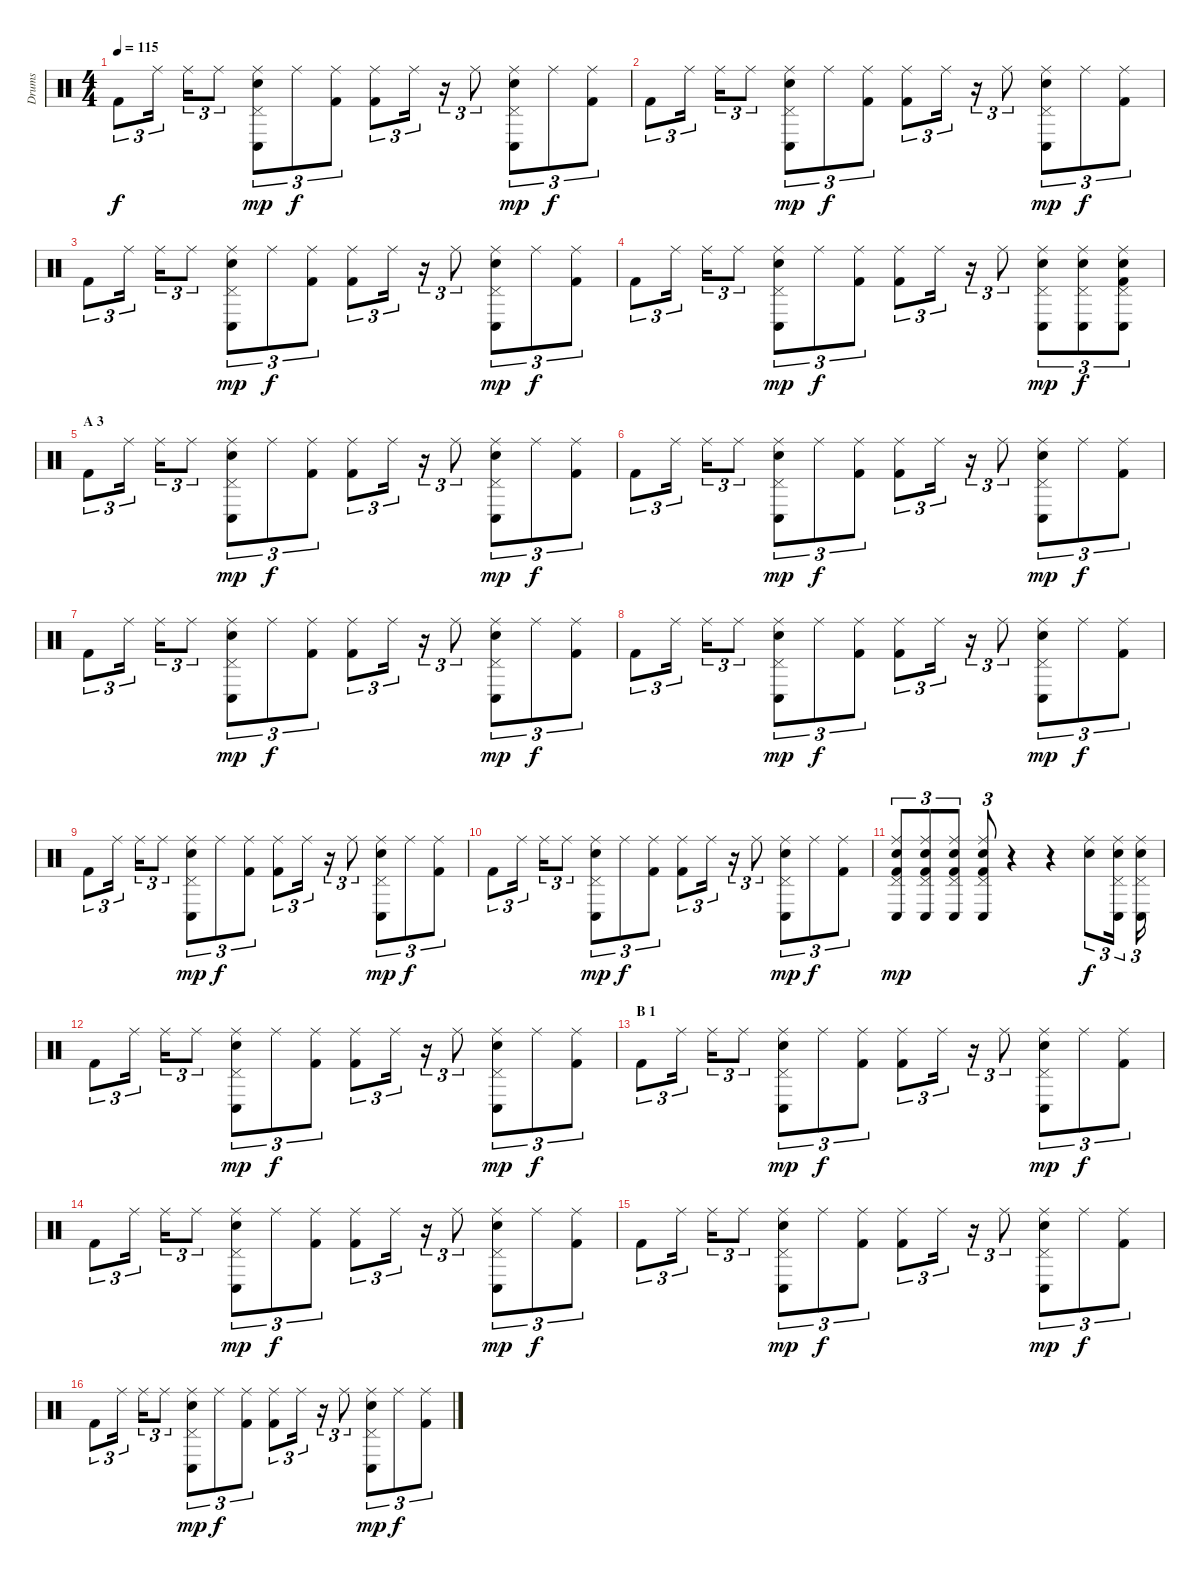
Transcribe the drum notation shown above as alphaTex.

\track ("Drums" "Drums") {instrument percussion}
\staff {score}
\articulation defaults
\ts (4 4)
\tempo 115
\clef neutral
\ks c "Kick (hit) 2".8{tu (3 2) dy f} "Ride (middle)".16{tu (3 2)} "Ride (middle)".16{tu (3 2)} "Ride (middle)".8{tu (3 2)}
("Ride (middle)" "Pedal Hi-Hat (hit)" "Conga low (hit)" "Electric Snare (hit)").8{tu (3 2) dy mp} "Ride (middle)".8{tu (3 2) dy f} ("Ride (middle)" "Kick (hit) 2").8{tu (3 2)} ("Ride (middle)" "Kick (hit) 2").8{tu (3 2)} "Ride (middle)".16{tu (3 2)} r.16{tu (3 2)} "Ride (middle)".8{tu (3 2)} ("Ride (middle)" "Pedal Hi-Hat (hit)" "Conga low (hit)" "Electric Snare (hit)").8{tu (3 2) dy mp} "Ride (middle)".8{tu (3 2) dy f} ("Ride (middle)" "Kick (hit) 2").8{tu (3 2)} |
"Kick (hit) 2".8{tu (3 2)} "Ride (middle)".16{tu (3 2)} "Ride (middle)".16{tu (3 2)} "Ride (middle)".8{tu (3 2)} ("Ride (middle)" "Pedal Hi-Hat (hit)" "Conga low (hit)" "Electric Snare (hit)").8{tu (3 2) dy mp} "Ride (middle)".8{tu (3 2) dy f} ("Ride (middle)" "Kick (hit) 2").8{tu (3 2)} ("Ride (middle)" "Kick (hit) 2").8{tu (3 2)} "Ride (middle)".16{tu (3 2)} r.16{tu (3 2)} "Ride (middle)".8{tu (3 2)} ("Ride (middle)" "Pedal Hi-Hat (hit)" "Conga low (hit)" "Electric Snare (hit)").8{tu (3 2) dy mp} "Ride (middle)".8{tu (3 2) dy f} ("Ride (middle)" "Kick (hit) 2").8{tu (3 2)} |
"Kick (hit) 2".8{tu (3 2)} "Ride (middle)".16{tu (3 2)} "Ride (middle)".16{tu (3 2)} "Ride (middle)".8{tu (3 2)} ("Ride (middle)" "Pedal Hi-Hat (hit)" "Conga low (hit)" "Electric Snare (hit)").8{tu (3 2) dy mp} "Ride (middle)".8{tu (3 2) dy f} ("Ride (middle)" "Kick (hit) 2").8{tu (3 2)} ("Ride (middle)" "Kick (hit) 2").8{tu (3 2)} "Ride (middle)".16{tu (3 2)} r.16{tu (3 2)} "Ride (middle)".8{tu (3 2)} ("Ride (middle)" "Pedal Hi-Hat (hit)" "Conga low (hit)" "Electric Snare (hit)").8{tu (3 2) dy mp} "Ride (middle)".8{tu (3 2) dy f} ("Ride (middle)" "Kick (hit) 2").8{tu (3 2)} |
"Kick (hit) 2".8{tu (3 2)} "Ride (middle)".16{tu (3 2)} "Ride (middle)".16{tu (3 2)} "Ride (middle)".8{tu (3 2)} ("Ride (middle)" "Pedal Hi-Hat (hit)" "Conga low (hit)" "Electric Snare (hit)").8{tu (3 2) dy mp} "Ride (middle)".8{tu (3 2) dy f} ("Ride (middle)" "Kick (hit) 2").8{tu (3 2)} ("Ride (middle)" "Kick (hit) 2").8{tu (3 2)} "Ride (middle)".16{tu (3 2)} r.16{tu (3 2)} "Ride (middle)".8{tu (3 2)} ("Ride (middle)" "Pedal Hi-Hat (hit)" "Conga low (hit)" "Electric Snare (hit)").8{tu (3 2) dy mp} ("Ride (middle)" "Pedal Hi-Hat (hit)" "Conga low (hit)" "Electric Snare (hit)").8{tu (3 2) dy f} ("Ride (middle)" "Pedal Hi-Hat (hit)" "Conga low (hit)" "Electric Snare (hit)" "Kick (hit) 2").8{tu (3 2)} |
\section ("" "A 3")
"Kick (hit) 2".8{tu (3 2)} "Ride (middle)".16{tu (3 2)} "Ride (middle)".16{tu (3 2)} "Ride (middle)".8{tu (3 2)} ("Ride (middle)" "Pedal Hi-Hat (hit)" "Conga low (hit)" "Electric Snare (hit)").8{tu (3 2) dy mp} "Ride (middle)".8{tu (3 2) dy f} ("Ride (middle)" "Kick (hit) 2").8{tu (3 2)} ("Ride (middle)" "Kick (hit) 2").8{tu (3 2)} "Ride (middle)".16{tu (3 2)} r.16{tu (3 2)} "Ride (middle)".8{tu (3 2)} ("Ride (middle)" "Pedal Hi-Hat (hit)" "Conga low (hit)" "Electric Snare (hit)").8{tu (3 2) dy mp} "Ride (middle)".8{tu (3 2) dy f} ("Ride (middle)" "Kick (hit) 2").8{tu (3 2)} |
"Kick (hit) 2".8{tu (3 2)} "Ride (middle)".16{tu (3 2)} "Ride (middle)".16{tu (3 2)} "Ride (middle)".8{tu (3 2)} ("Ride (middle)" "Pedal Hi-Hat (hit)" "Conga low (hit)" "Electric Snare (hit)").8{tu (3 2) dy mp} "Ride (middle)".8{tu (3 2) dy f} ("Ride (middle)" "Kick (hit) 2").8{tu (3 2)} ("Ride (middle)" "Kick (hit) 2").8{tu (3 2)} "Ride (middle)".16{tu (3 2)} r.16{tu (3 2)} "Ride (middle)".8{tu (3 2)} ("Ride (middle)" "Pedal Hi-Hat (hit)" "Conga low (hit)" "Electric Snare (hit)").8{tu (3 2) dy mp} "Ride (middle)".8{tu (3 2) dy f} ("Ride (middle)" "Kick (hit) 2").8{tu (3 2)} |
"Kick (hit) 2".8{tu (3 2)} "Ride (middle)".16{tu (3 2)} "Ride (middle)".16{tu (3 2)} "Ride (middle)".8{tu (3 2)} ("Ride (middle)" "Pedal Hi-Hat (hit)" "Conga low (hit)" "Electric Snare (hit)").8{tu (3 2) dy mp} "Ride (middle)".8{tu (3 2) dy f} ("Ride (middle)" "Kick (hit) 2").8{tu (3 2)} ("Ride (middle)" "Kick (hit) 2").8{tu (3 2)} "Ride (middle)".16{tu (3 2)} r.16{tu (3 2)} "Ride (middle)".8{tu (3 2)} ("Ride (middle)" "Pedal Hi-Hat (hit)" "Conga low (hit)" "Electric Snare (hit)").8{tu (3 2) dy mp} "Ride (middle)".8{tu (3 2) dy f} ("Ride (middle)" "Kick (hit) 2").8{tu (3 2)} |
"Kick (hit) 2".8{tu (3 2)} "Ride (middle)".16{tu (3 2)} "Ride (middle)".16{tu (3 2)} "Ride (middle)".8{tu (3 2)} ("Ride (middle)" "Pedal Hi-Hat (hit)" "Conga low (hit)" "Electric Snare (hit)").8{tu (3 2) dy mp} "Ride (middle)".8{tu (3 2) dy f} ("Ride (middle)" "Kick (hit) 2").8{tu (3 2)} ("Ride (middle)" "Kick (hit) 2").8{tu (3 2)} "Ride (middle)".16{tu (3 2)} r.16{tu (3 2)} "Ride (middle)".8{tu (3 2)} ("Ride (middle)" "Pedal Hi-Hat (hit)" "Conga low (hit)" "Electric Snare (hit)").8{tu (3 2) dy mp} "Ride (middle)".8{tu (3 2) dy f} ("Ride (middle)" "Kick (hit) 2").8{tu (3 2)} |
"Kick (hit) 2".8{tu (3 2)} "Ride (middle)".16{tu (3 2)} "Ride (middle)".16{tu (3 2)} "Ride (middle)".8{tu (3 2)} ("Ride (middle)" "Pedal Hi-Hat (hit)" "Conga low (hit)" "Electric Snare (hit)").8{tu (3 2) dy mp} "Ride (middle)".8{tu (3 2) dy f} ("Ride (middle)" "Kick (hit) 2").8{tu (3 2)} ("Ride (middle)" "Kick (hit) 2").8{tu (3 2)} "Ride (middle)".16{tu (3 2)} r.16{tu (3 2)} "Ride (middle)".8{tu (3 2)} ("Ride (middle)" "Pedal Hi-Hat (hit)" "Conga low (hit)" "Electric Snare (hit)").8{tu (3 2) dy mp} "Ride (middle)".8{tu (3 2) dy f} ("Ride (middle)" "Kick (hit) 2").8{tu (3 2)} |
"Kick (hit) 2".8{tu (3 2)} "Ride (middle)".16{tu (3 2)} "Ride (middle)".16{tu (3 2)} "Ride (middle)".8{tu (3 2)} ("Ride (middle)" "Pedal Hi-Hat (hit)" "Conga low (hit)" "Electric Snare (hit)").8{tu (3 2) dy mp} "Ride (middle)".8{tu (3 2) dy f} ("Ride (middle)" "Kick (hit) 2").8{tu (3 2)} ("Ride (middle)" "Kick (hit) 2").8{tu (3 2)} "Ride (middle)".16{tu (3 2)} r.16{tu (3 2)} "Ride (middle)".8{tu (3 2)} ("Ride (middle)" "Pedal Hi-Hat (hit)" "Conga low (hit)" "Electric Snare (hit)").8{tu (3 2) dy mp} "Ride (middle)".8{tu (3 2) dy f} ("Ride (middle)" "Kick (hit) 2").8{tu (3 2)} |
("Ride (middle)" "Pedal Hi-Hat (hit)" "Conga low (hit)" "Electric Snare (hit)" "Kick (hit) 2").8{tu (3 2) dy mp} ("Ride (middle)" "Pedal Hi-Hat (hit)" "Conga low (hit)" "Electric Snare (hit)" "Kick (hit) 2").8{tu (3 2)} ("Ride (middle)" "Pedal Hi-Hat (hit)" "Conga low (hit)" "Electric Snare (hit)" "Kick (hit) 2").8{tu (3 2)} ("Ride (middle)" "Pedal Hi-Hat (hit)" "Conga low (hit)" "Electric Snare (hit)" "Kick (hit) 2").8{tu (3 2)} r.4 r.4 ("Ride (middle)" "Electric Snare (hit)").8{tu (3 2) dy f} ("Ride (middle)" "Pedal Hi-Hat (hit)" "Conga low (hit)" "Electric Snare (hit)").16{tu (3 2)} ("Ride (middle)" "Pedal Hi-Hat (hit)" "Conga low (hit)" "Electric Snare (hit)").16{tu (3 2)} |
"Kick (hit) 2".8{tu (3 2)} "Ride (middle)".16{tu (3 2)} "Ride (middle)".16{tu (3 2)} "Ride (middle)".8{tu (3 2)} ("Ride (middle)" "Pedal Hi-Hat (hit)" "Conga low (hit)" "Electric Snare (hit)").8{tu (3 2) dy mp} "Ride (middle)".8{tu (3 2) dy f} ("Ride (middle)" "Kick (hit) 2").8{tu (3 2)} ("Ride (middle)" "Kick (hit) 2").8{tu (3 2)} "Ride (middle)".16{tu (3 2)} r.16{tu (3 2)} "Ride (middle)".8{tu (3 2)} ("Ride (middle)" "Pedal Hi-Hat (hit)" "Conga low (hit)" "Electric Snare (hit)").8{tu (3 2) dy mp} "Ride (middle)".8{tu (3 2) dy f} ("Ride (middle)" "Kick (hit) 2").8{tu (3 2)} |
\section ("" "B 1")
"Kick (hit) 2".8{tu (3 2)} "Ride (middle)".16{tu (3 2)} "Ride (middle)".16{tu (3 2)} "Ride (middle)".8{tu (3 2)} ("Ride (middle)" "Pedal Hi-Hat (hit)" "Conga low (hit)" "Electric Snare (hit)").8{tu (3 2) dy mp} "Ride (middle)".8{tu (3 2) dy f} ("Ride (middle)" "Kick (hit) 2").8{tu (3 2)} ("Ride (middle)" "Kick (hit) 2").8{tu (3 2)} "Ride (middle)".16{tu (3 2)} r.16{tu (3 2)} "Ride (middle)".8{tu (3 2)} ("Ride (middle)" "Pedal Hi-Hat (hit)" "Conga low (hit)" "Electric Snare (hit)").8{tu (3 2) dy mp} "Ride (middle)".8{tu (3 2) dy f} ("Ride (middle)" "Kick (hit) 2").8{tu (3 2)} |
"Kick (hit) 2".8{tu (3 2)} "Ride (middle)".16{tu (3 2)} "Ride (middle)".16{tu (3 2)} "Ride (middle)".8{tu (3 2)} ("Ride (middle)" "Pedal Hi-Hat (hit)" "Conga low (hit)" "Electric Snare (hit)").8{tu (3 2) dy mp} "Ride (middle)".8{tu (3 2) dy f} ("Ride (middle)" "Kick (hit) 2").8{tu (3 2)} ("Ride (middle)" "Kick (hit) 2").8{tu (3 2)} "Ride (middle)".16{tu (3 2)} r.16{tu (3 2)} "Ride (middle)".8{tu (3 2)} ("Ride (middle)" "Pedal Hi-Hat (hit)" "Conga low (hit)" "Electric Snare (hit)").8{tu (3 2) dy mp} "Ride (middle)".8{tu (3 2) dy f} ("Ride (middle)" "Kick (hit) 2").8{tu (3 2)} |
"Kick (hit) 2".8{tu (3 2)} "Ride (middle)".16{tu (3 2)} "Ride (middle)".16{tu (3 2)} "Ride (middle)".8{tu (3 2)} ("Ride (middle)" "Pedal Hi-Hat (hit)" "Conga low (hit)" "Electric Snare (hit)").8{tu (3 2) dy mp} "Ride (middle)".8{tu (3 2) dy f} ("Ride (middle)" "Kick (hit) 2").8{tu (3 2)} ("Ride (middle)" "Kick (hit) 2").8{tu (3 2)} "Ride (middle)".16{tu (3 2)} r.16{tu (3 2)} "Ride (middle)".8{tu (3 2)} ("Ride (middle)" "Pedal Hi-Hat (hit)" "Conga low (hit)" "Electric Snare (hit)").8{tu (3 2) dy mp} "Ride (middle)".8{tu (3 2) dy f} ("Ride (middle)" "Kick (hit) 2").8{tu (3 2)} |
"Kick (hit) 2".8{tu (3 2)} "Ride (middle)".16{tu (3 2)} "Ride (middle)".16{tu (3 2)} "Ride (middle)".8{tu (3 2)} ("Ride (middle)" "Pedal Hi-Hat (hit)" "Conga low (hit)" "Electric Snare (hit)").8{tu (3 2) dy mp} "Ride (middle)".8{tu (3 2) dy f} ("Ride (middle)" "Kick (hit) 2").8{tu (3 2)} ("Ride (middle)" "Kick (hit) 2").8{tu (3 2)} "Ride (middle)".16{tu (3 2)} r.16{tu (3 2)} "Ride (middle)".8{tu (3 2)} ("Ride (middle)" "Pedal Hi-Hat (hit)" "Conga low (hit)" "Electric Snare (hit)").8{tu (3 2) dy mp} "Ride (middle)".8{tu (3 2) dy f} ("Ride (middle)" "Kick (hit) 2").8{tu (3 2)}
